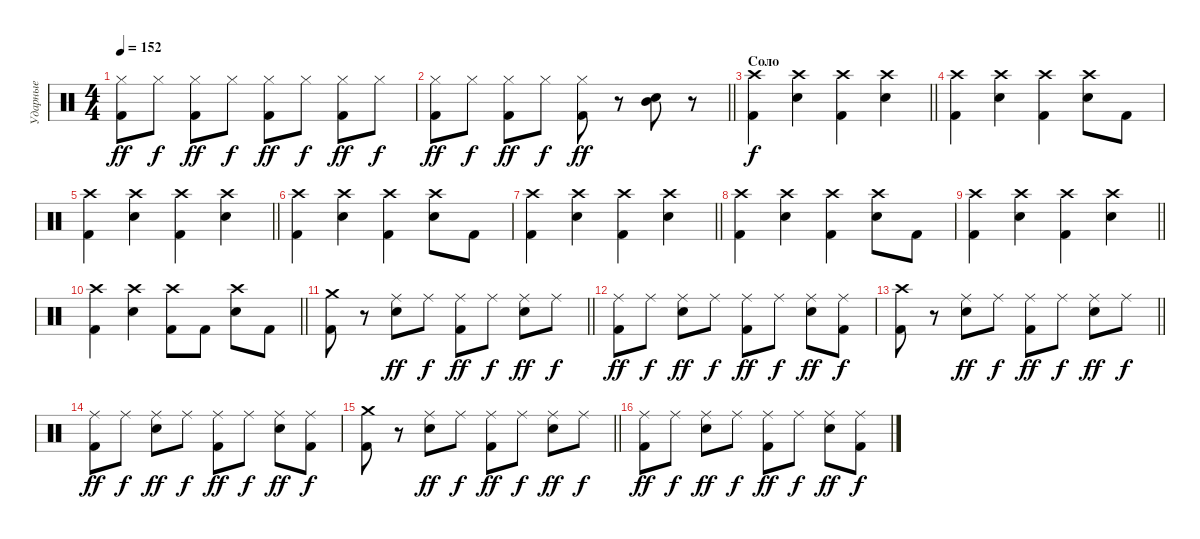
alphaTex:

\track ("Ударные" "Ударные") {instrument percussion}
\staff {score}
\articulation defaults
\ts (4 4)
\tempo 152
\clef neutral
\ks c
("Hi-Hat (closed)" "Kick (hit) 2").8{dy ff} "Hi-Hat (closed)".8{dy f} ("Hi-Hat (closed)" "Kick (hit) 2").8{dy ff} "Hi-Hat (closed)".8{dy f} ("Hi-Hat (closed)" "Kick (hit) 2").8{dy ff} "Hi-Hat (closed)".8{dy f} ("Hi-Hat (closed)" "Kick (hit) 2").8{dy ff} "Hi-Hat (closed)".8{dy f} |
\barLineRight lightlight
("Hi-Hat (closed)" "Kick (hit) 2").8{dy ff} "Hi-Hat (closed)".8{dy f} ("Hi-Hat (closed)" "Kick (hit) 2").8{dy ff} "Hi-Hat (closed)".8{dy f} ("Hi-Hat (closed)" "Kick (hit) 2").8{dy ff} r.8 ("Mid Tom (hit)" "Snare (hit) 2").8 r.8 |
\section ("" "Соло")
\barLineRight lightlight
("Crash high (hit)" "Kick (hit) 2").4{dy f} ("Crash high (hit)" "Snare (hit) 2").4 ("Crash high (hit)" "Kick (hit) 2").4 ("Crash high (hit)" "Snare (hit) 2").4 |
("Crash high (hit)" "Kick (hit) 2").4 ("Crash high (hit)" "Snare (hit) 2").4 ("Crash high (hit)" "Kick (hit) 2").4 ("Crash high (hit)" "Snare (hit) 2").8 "Kick (hit) 2".8 |
\barLineRight lightlight
("Crash high (hit)" "Kick (hit) 2").4 ("Crash high (hit)" "Snare (hit) 2").4 ("Crash high (hit)" "Kick (hit) 2").4 ("Crash high (hit)" "Snare (hit) 2").4 |
("Crash high (hit)" "Kick (hit) 2").4 ("Crash high (hit)" "Snare (hit) 2").4 ("Crash high (hit)" "Kick (hit) 2").4 ("Crash high (hit)" "Snare (hit) 2").8 "Kick (hit) 2".8 |
\barLineRight lightlight
("Crash high (hit)" "Kick (hit) 2").4 ("Crash high (hit)" "Snare (hit) 2").4 ("Crash high (hit)" "Kick (hit) 2").4 ("Crash high (hit)" "Snare (hit) 2").4 |
("Crash high (hit)" "Kick (hit) 2").4 ("Crash high (hit)" "Snare (hit) 2").4 ("Crash high (hit)" "Kick (hit) 2").4 ("Crash high (hit)" "Snare (hit) 2").8 "Kick (hit) 2".8 |
\barLineRight lightlight
("Crash high (hit)" "Kick (hit) 2").4 ("Crash high (hit)" "Snare (hit) 2").4 ("Crash high (hit)" "Kick (hit) 2").4 ("Crash high (hit)" "Snare (hit) 2").4 |
\barLineRight lightlight
("Crash high (hit)" "Kick (hit) 2").4 ("Crash high (hit)" "Snare (hit) 2").4 ("Crash high (hit)" "Kick (hit) 2").8 "Kick (hit) 2".8 ("Crash high (hit)" "Snare (hit) 2").8 "Kick (hit) 2".8 |
\barLineRight lightlight
("Crash medium (hit)" "Kick (hit) 2").8 r.8 ("Ride (middle)" "Snare (hit) 2").8{dy ff} "Ride (middle)".8{dy f} ("Ride (middle)" "Kick (hit) 2").8{dy ff} "Ride (middle)".8{dy f} ("Ride (middle)" "Snare (hit) 2").8{dy ff} "Ride (middle)".8{dy f} |
("Ride (middle)" "Kick (hit) 2").8{dy ff} "Ride (middle)".8{dy f} ("Ride (middle)" "Snare (hit) 2").8{dy ff} "Ride (middle)".8{dy f} ("Ride (middle)" "Kick (hit) 2").8{dy ff} "Ride (middle)".8{dy f} ("Ride (middle)" "Snare (hit) 2").8{dy ff} ("Ride (middle)" "Kick (hit) 2").8{dy f} |
\barLineRight lightlight
("Crash high (hit)" "Kick (hit) 2").8 r.8 ("Ride (middle)" "Snare (hit) 2").8{dy ff} "Ride (middle)".8{dy f} ("Ride (middle)" "Kick (hit) 2").8{dy ff} "Ride (middle)".8{dy f} ("Ride (middle)" "Snare (hit) 2").8{dy ff} "Ride (middle)".8{dy f} |
("Ride (middle)" "Kick (hit) 2").8{dy ff} "Ride (middle)".8{dy f} ("Ride (middle)" "Snare (hit) 2").8{dy ff} "Ride (middle)".8{dy f} ("Ride (middle)" "Kick (hit) 2").8{dy ff} "Ride (middle)".8{dy f} ("Ride (middle)" "Snare (hit) 2").8{dy ff} ("Ride (middle)" "Kick (hit) 2").8{dy f} |
\barLineRight lightlight
("Crash medium (hit)" "Kick (hit) 2").8 r.8 ("Ride (middle)" "Snare (hit) 2").8{dy ff} "Ride (middle)".8{dy f} ("Ride (middle)" "Kick (hit) 2").8{dy ff} "Ride (middle)".8{dy f} ("Ride (middle)" "Snare (hit) 2").8{dy ff} "Ride (middle)".8{dy f} |
("Ride (middle)" "Kick (hit) 2").8{dy ff} "Ride (middle)".8{dy f} ("Ride (middle)" "Snare (hit) 2").8{dy ff} "Ride (middle)".8{dy f} ("Ride (middle)" "Kick (hit) 2").8{dy ff} "Ride (middle)".8{dy f} ("Ride (middle)" "Snare (hit) 2").8{dy ff} ("Ride (middle)" "Kick (hit) 2").8{dy f}
